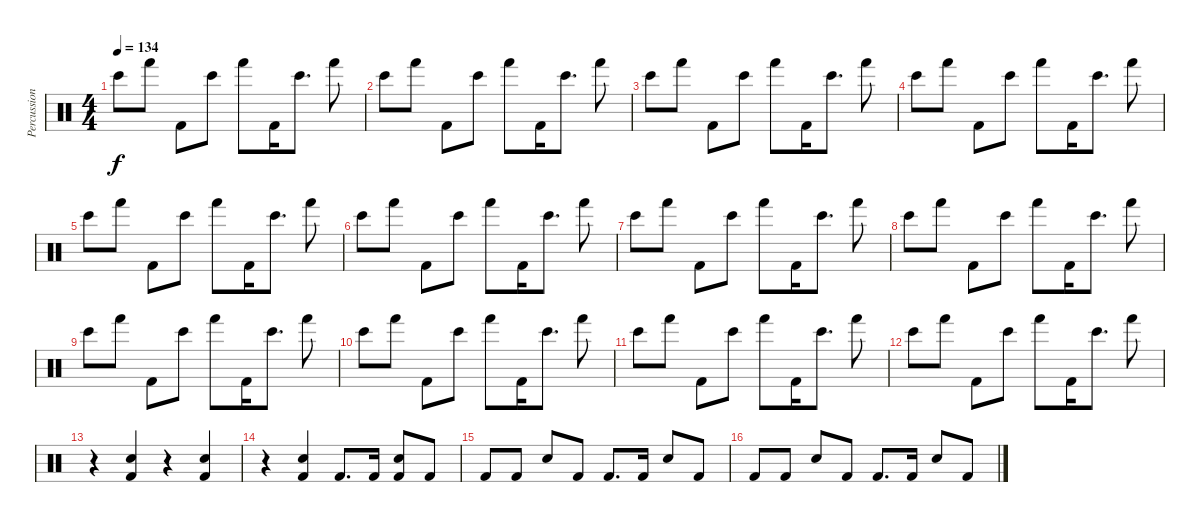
\track ("Percussion" "Percussion") {instrument percussion}
\staff {score}
\articulation defaults
\ts (4 4)
\tempo 134
\clef neutral
\ks c "Bongo High (hit)".8{dy f} "Hand (hit)".8 "Kick (hit) 2".8 "Bongo High (hit)".8 "Hand (hit)".8 "Kick (hit) 2".16 "Bongo High (hit)".8{d} "Hand (hit)".8
|
"Bongo High (hit)".8 "Hand (hit)".8 "Kick (hit) 2".8 "Bongo High (hit)".8 "Hand (hit)".8 "Kick (hit) 2".16 "Bongo High (hit)".8{d} "Hand (hit)".8 |
"Bongo High (hit)".8 "Hand (hit)".8 "Kick (hit) 2".8 "Bongo High (hit)".8 "Hand (hit)".8 "Kick (hit) 2".16 "Bongo High (hit)".8{d} "Hand (hit)".8 |
"Bongo High (hit)".8 "Hand (hit)".8 "Kick (hit) 2".8 "Bongo High (hit)".8 "Hand (hit)".8 "Kick (hit) 2".16 "Bongo High (hit)".8{d} "Hand (hit)".8 |
"Bongo High (hit)".8 "Hand (hit)".8 "Kick (hit) 2".8 "Bongo High (hit)".8 "Hand (hit)".8 "Kick (hit) 2".16 "Bongo High (hit)".8{d} "Hand (hit)".8 |
"Bongo High (hit)".8 "Hand (hit)".8 "Kick (hit) 2".8 "Bongo High (hit)".8 "Hand (hit)".8 "Kick (hit) 2".16 "Bongo High (hit)".8{d} "Hand (hit)".8 |
"Bongo High (hit)".8 "Hand (hit)".8 "Kick (hit) 2".8 "Bongo High (hit)".8 "Hand (hit)".8 "Kick (hit) 2".16 "Bongo High (hit)".8{d} "Hand (hit)".8 |
"Bongo High (hit)".8 "Hand (hit)".8 "Kick (hit) 2".8 "Bongo High (hit)".8 "Hand (hit)".8 "Kick (hit) 2".16 "Bongo High (hit)".8{d} "Hand (hit)".8 |
"Bongo High (hit)".8 "Hand (hit)".8 "Kick (hit) 2".8 "Bongo High (hit)".8 "Hand (hit)".8 "Kick (hit) 2".16 "Bongo High (hit)".8{d} "Hand (hit)".8 |
"Bongo High (hit)".8 "Hand (hit)".8 "Kick (hit) 2".8 "Bongo High (hit)".8 "Hand (hit)".8 "Kick (hit) 2".16 "Bongo High (hit)".8{d} "Hand (hit)".8 |
"Bongo High (hit)".8 "Hand (hit)".8 "Kick (hit) 2".8 "Bongo High (hit)".8 "Hand (hit)".8 "Kick (hit) 2".16 "Bongo High (hit)".8{d} "Hand (hit)".8 |
"Bongo High (hit)".8 "Hand (hit)".8 "Kick (hit) 2".8 "Bongo High (hit)".8 "Hand (hit)".8 "Kick (hit) 2".16 "Bongo High (hit)".8{d} "Hand (hit)".8 |
r.4 ("Snare (hit) 2" "Kick (hit) 2").4 r.4 ("Snare (hit) 2" "Kick (hit) 2").4 |
r.4 ("Snare (hit) 2" "Kick (hit) 2").4 "Kick (hit) 2".8{d} "Kick (hit) 2".16 ("Snare (hit) 2" "Kick (hit) 2").8 "Kick (hit) 2".8 |
"Kick (hit) 2".8 "Kick (hit) 2".8 "Snare (hit) 2".8 "Kick (hit) 2".8 "Kick (hit) 2".8{d} "Kick (hit) 2".16 "Snare (hit) 2".8 "Kick (hit) 2".8 |
"Kick (hit) 2".8 "Kick (hit) 2".8 "Snare (hit) 2".8 "Kick (hit) 2".8 "Kick (hit) 2".8{d} "Kick (hit) 2".16 "Snare (hit) 2".8 "Kick (hit) 2".8
